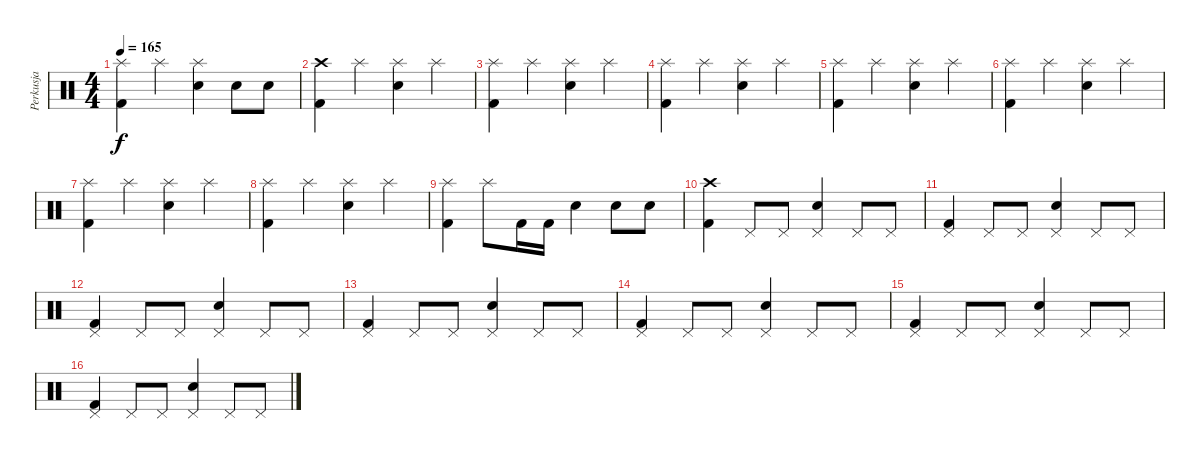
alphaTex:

\track ("Perkusja" "Perkusja") {instrument percussion}
\staff {score}
\articulation defaults
\ts (4 4)
\tempo 165
\clef neutral
\ks c
("Splash (hit)" "Kick (hit) 2").4{dy f} "Splash (hit)".4 ("Splash (hit)" "Snare (hit) 2").4 "Snare (hit) 2".8 "Snare (hit) 2".8 |
("Crash high (hit)" "Kick (hit) 2").4 "Splash (hit)".4 ("Splash (hit)" "Snare (hit) 2").4 "Splash (hit)".4 |
("Splash (hit)" "Kick (hit) 2").4 "Splash (hit)".4 ("Splash (hit)" "Snare (hit) 2").4 "Splash (hit)".4 |
("Splash (hit)" "Kick (hit) 2").4 "Splash (hit)".4 ("Splash (hit)" "Snare (hit) 2").4 "Splash (hit)".4 |
("Splash (hit)" "Kick (hit) 2").4 "Splash (hit)".4 ("Splash (hit)" "Snare (hit) 2").4 "Splash (hit)".4 |
("Splash (hit)" "Kick (hit) 2").4 "Splash (hit)".4 ("Splash (hit)" "Snare (hit) 2").4 "Splash (hit)".4 |
("Splash (hit)" "Kick (hit) 2").4 "Splash (hit)".4 ("Splash (hit)" "Snare (hit) 2").4 "Splash (hit)".4 |
("Splash (hit)" "Kick (hit) 2").4 "Splash (hit)".4 ("Splash (hit)" "Snare (hit) 2").4 "Splash (hit)".4 |
("Splash (hit)" "Kick (hit) 2").4 "Splash (hit)".8 "Kick (hit) 2".16 "Kick (hit) 2".16 "Snare (hit) 2".4 "Snare (hit) 2".8 "Snare (hit) 2".8 |
("Crash high (hit)" "Kick (hit) 2").4 "Pedal Hi-Hat (hit)".8 "Pedal Hi-Hat (hit)".8 ("Pedal Hi-Hat (hit)" "Snare (hit) 2").4 "Pedal Hi-Hat (hit)".8 "Pedal Hi-Hat (hit)".8 |
("Pedal Hi-Hat (hit)" "Kick (hit) 2").4 "Pedal Hi-Hat (hit)".8 "Pedal Hi-Hat (hit)".8 ("Pedal Hi-Hat (hit)" "Snare (hit) 2").4 "Pedal Hi-Hat (hit)".8 "Pedal Hi-Hat (hit)".8 |
("Pedal Hi-Hat (hit)" "Kick (hit) 2").4 "Pedal Hi-Hat (hit)".8 "Pedal Hi-Hat (hit)".8 ("Pedal Hi-Hat (hit)" "Snare (hit) 2").4 "Pedal Hi-Hat (hit)".8 "Pedal Hi-Hat (hit)".8 |
("Pedal Hi-Hat (hit)" "Kick (hit) 2").4 "Pedal Hi-Hat (hit)".8 "Pedal Hi-Hat (hit)".8 ("Pedal Hi-Hat (hit)" "Snare (hit) 2").4 "Pedal Hi-Hat (hit)".8 "Pedal Hi-Hat (hit)".8 |
("Pedal Hi-Hat (hit)" "Kick (hit) 2").4 "Pedal Hi-Hat (hit)".8 "Pedal Hi-Hat (hit)".8 ("Pedal Hi-Hat (hit)" "Snare (hit) 2").4 "Pedal Hi-Hat (hit)".8 "Pedal Hi-Hat (hit)".8 |
("Pedal Hi-Hat (hit)" "Kick (hit) 2").4 "Pedal Hi-Hat (hit)".8 "Pedal Hi-Hat (hit)".8 ("Pedal Hi-Hat (hit)" "Snare (hit) 2").4 "Pedal Hi-Hat (hit)".8 "Pedal Hi-Hat (hit)".8 |
("Pedal Hi-Hat (hit)" "Kick (hit) 2").4 "Pedal Hi-Hat (hit)".8 "Pedal Hi-Hat (hit)".8 ("Pedal Hi-Hat (hit)" "Snare (hit) 2").4 "Pedal Hi-Hat (hit)".8 "Pedal Hi-Hat (hit)".8
